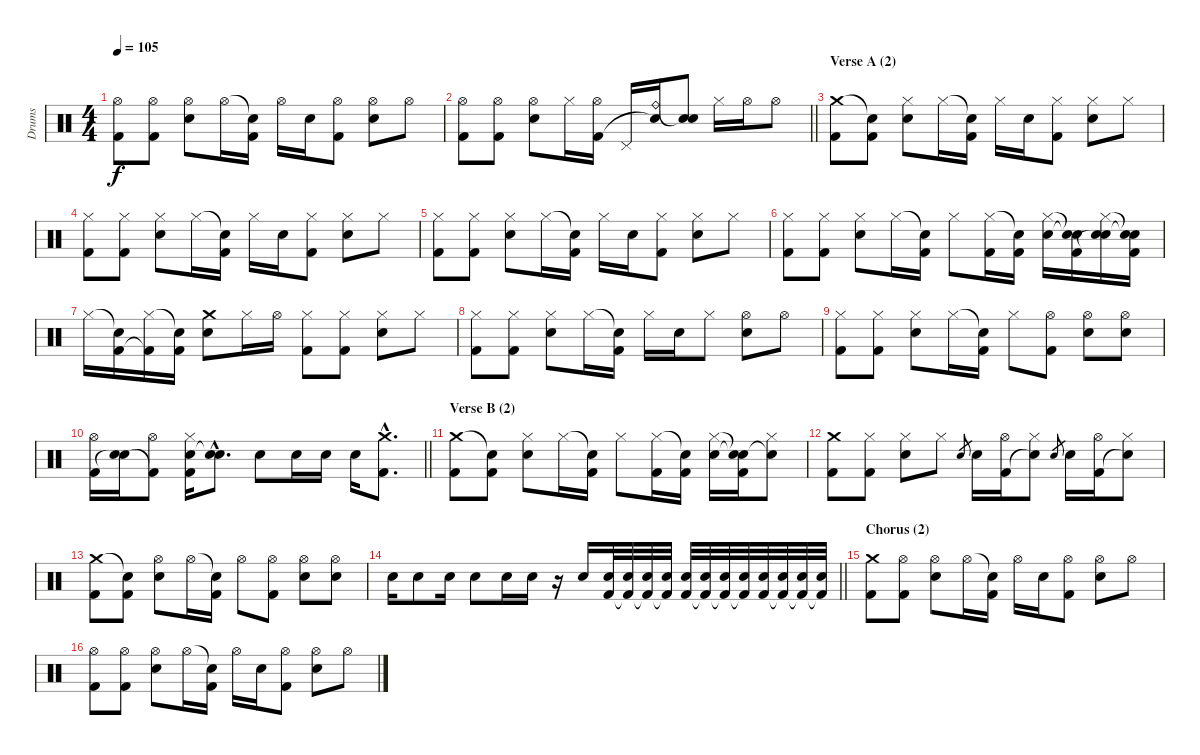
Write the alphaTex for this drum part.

\track ("Drums" "Drums") {instrument percussion}
\staff {score}
\articulation defaults
\ts (4 4)
\tempo 105
\clef neutral
\ks aminor
("Hi-Hat (open)" "Kick (hit) 2").8{dy f} ("Hi-Hat (open)" "Kick (hit) 2").8 ("Hi-Hat (open)" "Electric Snare (hit)").8 "Hi-Hat (open)".16 ("Snare (hit)"{t} "Kick (hit) 2").16 "Hi-Hat (open)".16 "Electric Snare (hit)".16 ("Hi-Hat (open)" "Kick (hit) 2").8 ("Hi-Hat (open)" "Electric Snare (hit)").8 "Hi-Hat (open)".8 |
\barLineRight lightlight
("Hi-Hat (open)" "Kick (hit) 2").8 ("Hi-Hat (open)" "Kick (hit) 2").8 ("Hi-Hat (open)" "Electric Snare (hit)").8 "Hi-Hat (closed)".16 ("Hi-Hat (open)" "Kick (hit) 2").16 "Pedal Hi-Hat (hit)".16 ("Ride (bell)" "Snare (hit)"{t}).16 ("Snare (hit)"{t} "Electric Snare (hit)").8 "Hi-Hat (closed)".16 "Hi-Hat (open)".16 "Hi-Hat (open)".8 |
\section ("" "Verse A (2)")
("Crash medium (hit)" "Kick (hit) 2").8 ("Snare (hit)"{t} "Kick (hit) 2").8 ("Hi-Hat (closed)" "Electric Snare (hit)").8 "Hi-Hat (closed)".16 ("Snare (hit)"{t} "Kick (hit) 2").16 "Hi-Hat (closed)".16 "Electric Snare (hit)".16 ("Hi-Hat (closed)" "Kick (hit) 2").8 ("Hi-Hat (closed)" "Electric Snare (hit)").8 "Hi-Hat (closed)".8 |
("Hi-Hat (closed)" "Kick (hit) 2").8 ("Hi-Hat (closed)" "Kick (hit) 2").8 ("Hi-Hat (closed)" "Electric Snare (hit)").8 "Hi-Hat (closed)".16 ("Snare (hit)"{t} "Kick (hit) 2").16 "Hi-Hat (closed)".16 "Electric Snare (hit)".16 ("Hi-Hat (closed)" "Kick (hit) 2").8 ("Hi-Hat (closed)" "Electric Snare (hit)").8 "Hi-Hat (closed)".8 |
("Hi-Hat (closed)" "Kick (hit) 2").8 ("Hi-Hat (closed)" "Kick (hit) 2").8 ("Hi-Hat (closed)" "Electric Snare (hit)").8 "Hi-Hat (closed)".16 ("Snare (hit)"{t} "Kick (hit) 2").16 "Hi-Hat (closed)".16 "Electric Snare (hit)".16 ("Hi-Hat (closed)" "Kick (hit) 2").8 ("Hi-Hat (closed)" "Electric Snare (hit)").8 "Hi-Hat (closed)".8 |
("Hi-Hat (closed)" "Kick (hit) 2").8 ("Hi-Hat (closed)" "Kick (hit) 2").8 ("Hi-Hat (closed)" "Electric Snare (hit)").8 "Hi-Hat (closed)".16 ("Snare (hit)"{t} "Kick (hit) 2").16 "Hi-Hat (closed)".8 ("Hi-Hat (closed)" "Kick (hit) 2").16 ("Snare (hit)"{t} "Kick (hit) 2").16 ("Hi-Hat (closed)" "Electric Snare (hit)").16 ("Snare (hit)"{t} "Snare (hit)"{t} "Kick (hit) 2").16 ("Hi-Hat (closed)" "Electric Snare (hit)" "Snare (hit)"{t}).16 ("Snare (hit)"{t} "Snare (hit)"{t} "Kick (hit) 2").16 |
"Hi-Hat (closed)".16 ("Snare (hit)"{t} "Kick (hit) 2").16 ("Hi-Hat (closed)" "Kick (hit) 2"{t}).16 ("Snare (hit)"{t} "Kick (hit) 2").16 ("Crash medium (hit)" "Electric Snare (hit)").8 "Hi-Hat (closed)".16 "Hi-Hat (open)".16 ("Hi-Hat (closed)" "Kick (hit) 2").8 ("Hi-Hat (closed)" "Kick (hit) 2").8 ("Hi-Hat (closed)" "Electric Snare (hit)").8 "Hi-Hat (closed)".8 |
("Hi-Hat (closed)" "Kick (hit) 2").8 ("Hi-Hat (closed)" "Kick (hit) 2").8 ("Hi-Hat (closed)" "Electric Snare (hit)").8 "Hi-Hat (closed)".16 ("Snare (hit)"{t} "Kick (hit) 2").16 "Hi-Hat (closed)".16 "Electric Snare (hit)".16 "Hi-Hat (closed)".8 ("Hi-Hat (open)" "Electric Snare (hit)").8 "Hi-Hat (open)".8 |
("Hi-Hat (closed)" "Kick (hit) 2").8 ("Hi-Hat (closed)" "Kick (hit) 2").8 ("Hi-Hat (closed)" "Electric Snare (hit)").8 "Hi-Hat (closed)".16 ("Snare (hit)"{t} "Kick (hit) 2").16 "Hi-Hat (closed)".8 ("Hi-Hat (open)" "Kick (hit) 2").8 ("Hi-Hat (open)" "Electric Snare (hit)").8 ("Hi-Hat (open)" "Electric Snare (hit)").8 |
\barLineRight lightlight
("Hi-Hat (open)" "Kick (hit) 2").16 ("Electric Snare (hit)" "Snare (hit)"{t}).16 ("Hi-Hat (open)" "Kick (hit) 2"{t}).8 ("Hi-Hat (closed)" "Electric Snare (hit)" "Kick (hit) 2").16 ("Electric Snare (hit)"{hac} "Snare (hit)"{hac t}).8{d} "Electric Snare (hit)".8 "Electric Snare (hit)".16 "Electric Snare (hit)".16 "Electric Snare (hit)".16 ("Crash medium (hit)"{hac} "Kick (hit) 2"{hac}).8{d} |
\section ("" "Verse B (2)")
("Crash medium (hit)" "Kick (hit) 2").8 ("Snare (hit)"{t} "Kick (hit) 2").8 ("Hi-Hat (closed)" "Electric Snare (hit)").8 "Hi-Hat (closed)".16 ("Snare (hit)"{t} "Kick (hit) 2").16 "Hi-Hat (closed)".8 ("Hi-Hat (closed)" "Kick (hit) 2").16 ("Snare (hit)"{t} "Kick (hit) 2").16 ("Hi-Hat (closed)" "Electric Snare (hit)").16 ("Snare (hit)"{t} "Snare (hit)"{t} "Kick (hit) 2").16 ("Hi-Hat (closed)" "Snare (hit)"{t}).8 |
("Crash medium (hit)" "Kick (hit) 2").8 ("Hi-Hat (closed)" "Kick (hit) 2").8 ("Hi-Hat (closed)" "Electric Snare (hit)").8 "Hi-Hat (closed)".8 "Electric Snare (hit)".8{gr} "Electric Snare (hit)".16 ("Hi-Hat (open)" "Kick (hit) 2").16 ("Hi-Hat (closed)" "Snare (hit)"{t}).8 "Electric Snare (hit)".8{gr} "Electric Snare (hit)".16 ("Hi-Hat (open)" "Kick (hit) 2").16 ("Hi-Hat (closed)" "Snare (hit)"{t}).8 |
("Crash medium (hit)" "Kick (hit) 2").8 ("Snare (hit)"{t} "Kick (hit) 2").8 ("Hi-Hat (open)" "Electric Snare (hit)").8 "Hi-Hat (open)".16 ("Snare (hit)"{t} "Kick (hit) 2").16 "Hi-Hat (open)".8 ("Hi-Hat (open)" "Kick (hit) 2").8 ("Hi-Hat (open)" "Electric Snare (hit)").8 ("Hi-Hat (open)" "Electric Snare (hit)").8 |
\barLineRight lightlight "Electric Snare (hit)".16 "Electric Snare (hit)".8 "Electric Snare (hit)".16 "Electric Snare (hit)".8 "Electric Snare (hit)".16 "Electric Snare (hit)".16
r.16 "Electric Snare (hit)".16 ("Electric Snare (hit)" "Kick (hit) 2").32 ("Electric Snare (hit)" "Kick (hit) 2"{t}).32 ("Electric Snare (hit)" "Kick (hit) 2"{t}).32 ("Electric Snare (hit)" "Kick (hit) 2"{t}).32 ("Electric Snare (hit)" "Kick (hit) 2").32 ("Electric Snare (hit)" "Kick (hit) 2"{t}).32 ("Electric Snare (hit)" "Kick (hit) 2"{t}).32 ("Electric Snare (hit)" "Kick (hit) 2"{t}).32 ("Electric Snare (hit)" "Kick (hit) 2").32 ("Electric Snare (hit)" "Kick (hit) 2"{t}).32 ("Electric Snare (hit)" "Kick (hit) 2"{t}).32 ("Electric Snare (hit)" "Kick (hit) 2"{t}).32 |
\section ("" "Chorus (2)")
("Crash medium (hit)" "Kick (hit) 2").8 ("Hi-Hat (open)" "Kick (hit) 2").8 ("Hi-Hat (open)" "Electric Snare (hit)").8 "Hi-Hat (open)".16 ("Snare (hit)"{t} "Kick (hit) 2").16 "Hi-Hat (open)".16 "Electric Snare (hit)".16 ("Hi-Hat (open)" "Kick (hit) 2").8 ("Hi-Hat (open)" "Electric Snare (hit)").8 "Hi-Hat (open)".8 |
("Hi-Hat (open)" "Kick (hit) 2").8 ("Hi-Hat (open)" "Kick (hit) 2").8 ("Hi-Hat (open)" "Electric Snare (hit)").8 "Hi-Hat (open)".16 ("Snare (hit)"{t} "Kick (hit) 2").16 "Hi-Hat (open)".16 "Electric Snare (hit)".16 ("Hi-Hat (open)" "Kick (hit) 2").8 ("Hi-Hat (open)" "Electric Snare (hit)").8 "Hi-Hat (open)".8
